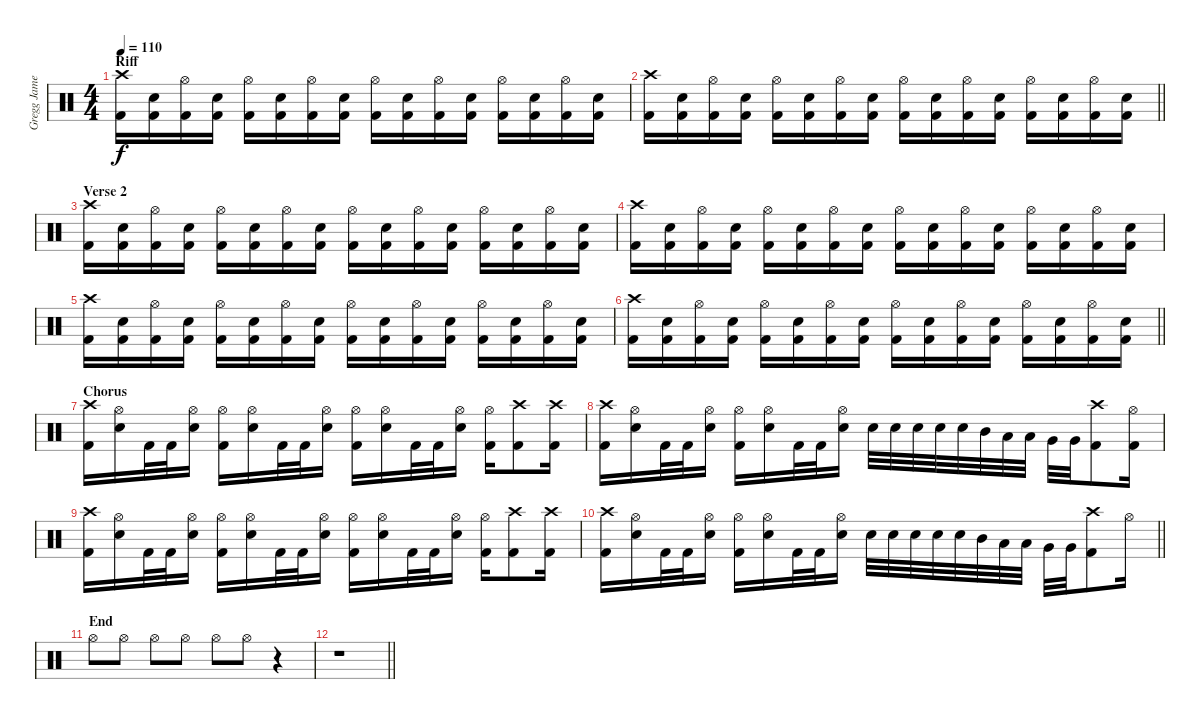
\track ("Gregg James" "Gregg Jame") {instrument percussion}
\staff {score}
\articulation defaults
\ts (4 4)
\section ("" "Riff")
\tempo 110
\clef neutral
\ks c
("Kick (hit) 2" "Crash high (hit)").16{dy f} ("Kick (hit) 2" "Snare (hit) 2").16 ("Kick (hit) 2" "Hi-Hat (open)").16 ("Kick (hit) 2" "Snare (hit) 2").16 ("Kick (hit) 2" "Hi-Hat (open)").16 ("Kick (hit) 2" "Snare (hit) 2").16 ("Kick (hit) 2" "Hi-Hat (open)").16 ("Kick (hit) 2" "Snare (hit) 2").16 ("Kick (hit) 2" "Hi-Hat (open)").16 ("Kick (hit) 2" "Snare (hit) 2").16 ("Kick (hit) 2" "Hi-Hat (open)").16 ("Kick (hit) 2" "Snare (hit) 2").16 ("Kick (hit) 2" "Hi-Hat (open)").16 ("Kick (hit) 2" "Snare (hit) 2").16 ("Kick (hit) 2" "Hi-Hat (open)").16 ("Kick (hit) 2" "Snare (hit) 2").16 |
\barLineRight lightlight
("Kick (hit) 2" "Crash high (hit)").16 ("Kick (hit) 2" "Snare (hit) 2").16 ("Kick (hit) 2" "Hi-Hat (open)").16 ("Kick (hit) 2" "Snare (hit) 2").16 ("Kick (hit) 2" "Hi-Hat (open)").16 ("Kick (hit) 2" "Snare (hit) 2").16 ("Kick (hit) 2" "Hi-Hat (open)").16 ("Kick (hit) 2" "Snare (hit) 2").16 ("Kick (hit) 2" "Hi-Hat (open)").16 ("Kick (hit) 2" "Snare (hit) 2").16 ("Kick (hit) 2" "Hi-Hat (open)").16 ("Kick (hit) 2" "Snare (hit) 2").16 ("Kick (hit) 2" "Hi-Hat (open)").16 ("Kick (hit) 2" "Snare (hit) 2").16 ("Kick (hit) 2" "Hi-Hat (open)").16 ("Kick (hit) 2" "Snare (hit) 2").16 |
\section ("" "Verse 2")
("Kick (hit) 2" "Crash high (hit)").16 ("Kick (hit) 2" "Snare (hit) 2").16 ("Kick (hit) 2" "Hi-Hat (open)").16 ("Kick (hit) 2" "Snare (hit) 2").16 ("Kick (hit) 2" "Hi-Hat (open)").16 ("Kick (hit) 2" "Snare (hit) 2").16 ("Kick (hit) 2" "Hi-Hat (open)").16 ("Kick (hit) 2" "Snare (hit) 2").16 ("Kick (hit) 2" "Hi-Hat (open)").16 ("Kick (hit) 2" "Snare (hit) 2").16 ("Kick (hit) 2" "Hi-Hat (open)").16 ("Kick (hit) 2" "Snare (hit) 2").16 ("Kick (hit) 2" "Hi-Hat (open)").16 ("Kick (hit) 2" "Snare (hit) 2").16 ("Kick (hit) 2" "Hi-Hat (open)").16 ("Kick (hit) 2" "Snare (hit) 2").16 |
("Kick (hit) 2" "Crash high (hit)").16 ("Kick (hit) 2" "Snare (hit) 2").16 ("Kick (hit) 2" "Hi-Hat (open)").16 ("Kick (hit) 2" "Snare (hit) 2").16 ("Kick (hit) 2" "Hi-Hat (open)").16 ("Kick (hit) 2" "Snare (hit) 2").16 ("Kick (hit) 2" "Hi-Hat (open)").16 ("Kick (hit) 2" "Snare (hit) 2").16 ("Kick (hit) 2" "Hi-Hat (open)").16 ("Kick (hit) 2" "Snare (hit) 2").16 ("Kick (hit) 2" "Hi-Hat (open)").16 ("Kick (hit) 2" "Snare (hit) 2").16 ("Kick (hit) 2" "Hi-Hat (open)").16 ("Kick (hit) 2" "Snare (hit) 2").16 ("Kick (hit) 2" "Hi-Hat (open)").16 ("Kick (hit) 2" "Snare (hit) 2").16 |
("Kick (hit) 2" "Crash high (hit)").16 ("Kick (hit) 2" "Snare (hit) 2").16 ("Kick (hit) 2" "Hi-Hat (open)").16 ("Kick (hit) 2" "Snare (hit) 2").16 ("Kick (hit) 2" "Hi-Hat (open)").16 ("Kick (hit) 2" "Snare (hit) 2").16 ("Kick (hit) 2" "Hi-Hat (open)").16 ("Kick (hit) 2" "Snare (hit) 2").16 ("Kick (hit) 2" "Hi-Hat (open)").16 ("Kick (hit) 2" "Snare (hit) 2").16 ("Kick (hit) 2" "Hi-Hat (open)").16 ("Kick (hit) 2" "Snare (hit) 2").16 ("Kick (hit) 2" "Hi-Hat (open)").16 ("Kick (hit) 2" "Snare (hit) 2").16 ("Kick (hit) 2" "Hi-Hat (open)").16 ("Kick (hit) 2" "Snare (hit) 2").16 |
\barLineRight lightlight
("Kick (hit) 2" "Crash high (hit)").16 ("Kick (hit) 2" "Snare (hit) 2").16 ("Kick (hit) 2" "Hi-Hat (open)").16 ("Kick (hit) 2" "Snare (hit) 2").16 ("Kick (hit) 2" "Hi-Hat (open)").16 ("Kick (hit) 2" "Snare (hit) 2").16 ("Kick (hit) 2" "Hi-Hat (open)").16 ("Kick (hit) 2" "Snare (hit) 2").16 ("Kick (hit) 2" "Hi-Hat (open)").16 ("Kick (hit) 2" "Snare (hit) 2").16 ("Kick (hit) 2" "Hi-Hat (open)").16 ("Kick (hit) 2" "Snare (hit) 2").16 ("Kick (hit) 2" "Hi-Hat (open)").16 ("Kick (hit) 2" "Snare (hit) 2").16 ("Kick (hit) 2" "Hi-Hat (open)").16 ("Kick (hit) 2" "Snare (hit) 2").16 |
\section ("" "Chorus")
("Kick (hit) 2" "Crash high (hit)").16 ("Snare (hit) 2" "Hi-Hat (open)").16 "Kick (hit) 2".32 "Kick (hit) 2".32 ("Snare (hit) 2" "Hi-Hat (open)").16 ("Kick (hit) 2" "Hi-Hat (open)").16 ("Snare (hit) 2" "Hi-Hat (open)").16 "Kick (hit) 2".32 "Kick (hit) 2".32 ("Snare (hit) 2" "Hi-Hat (open)").16 ("Kick (hit) 2" "Hi-Hat (open)").16 ("Snare (hit) 2" "Hi-Hat (open)").16 "Kick (hit) 2".32 "Kick (hit) 2".32 ("Snare (hit) 2" "Hi-Hat (open)").16 ("Kick (hit) 2" "Hi-Hat (open)").16 ("Kick (hit) 2" "Crash high (hit)").8 ("Kick (hit) 2" "Crash high (hit)").16 |
("Kick (hit) 2" "Crash high (hit)").16 ("Snare (hit) 2" "Hi-Hat (open)").16 "Kick (hit) 2".32 "Kick (hit) 2".32 ("Snare (hit) 2" "Hi-Hat (open)").16 ("Kick (hit) 2" "Hi-Hat (open)").16 ("Snare (hit) 2" "Hi-Hat (open)").16 "Kick (hit) 2".32 "Kick (hit) 2".32 ("Snare (hit) 2" "Hi-Hat (open)").16 "Snare (hit) 2".32 "Snare (hit) 2".32 "Snare (hit) 2".32 "Snare (hit) 2".32 "Snare (hit) 2".32 "Mid Tom (hit)".32 "Low Tom (hit)".32 "Low Tom (hit)".32 "Very Low Tom (hit)".32 "Very Low Tom (hit)".32 ("Kick (hit) 2" "Crash high (hit)").8 ("Kick (hit) 2" "Hi-Hat (open)").16 |
("Kick (hit) 2" "Crash high (hit)").16 ("Snare (hit) 2" "Hi-Hat (open)").16 "Kick (hit) 2".32 "Kick (hit) 2".32 ("Snare (hit) 2" "Hi-Hat (open)").16 ("Kick (hit) 2" "Hi-Hat (open)").16 ("Snare (hit) 2" "Hi-Hat (open)").16 "Kick (hit) 2".32 "Kick (hit) 2".32 ("Snare (hit) 2" "Hi-Hat (open)").16 ("Kick (hit) 2" "Hi-Hat (open)").16 ("Snare (hit) 2" "Hi-Hat (open)").16 "Kick (hit) 2".32 "Kick (hit) 2".32 ("Snare (hit) 2" "Hi-Hat (open)").16 ("Kick (hit) 2" "Hi-Hat (open)").16 ("Kick (hit) 2" "Crash high (hit)").8 ("Kick (hit) 2" "Crash high (hit)").16 |
\barLineRight lightlight
("Kick (hit) 2" "Crash high (hit)").16 ("Snare (hit) 2" "Hi-Hat (open)").16 "Kick (hit) 2".32 "Kick (hit) 2".32 ("Snare (hit) 2" "Hi-Hat (open)").16 ("Kick (hit) 2" "Hi-Hat (open)").16 ("Snare (hit) 2" "Hi-Hat (open)").16 "Kick (hit) 2".32 "Kick (hit) 2".32 ("Snare (hit) 2" "Hi-Hat (open)").16 "Snare (hit) 2".32 "Snare (hit) 2".32 "Snare (hit) 2".32 "Snare (hit) 2".32 "Snare (hit) 2".32 "Mid Tom (hit)".32 "Low Tom (hit)".32 "Low Tom (hit)".32 "Very Low Tom (hit)".32 "Very Low Tom (hit)".32 ("Kick (hit) 2" "Crash high (hit)").8 "Hi-Hat (open)".16 |
\section ("" "End")
"Hi-Hat (open)".8 "Hi-Hat (open)".8 "Hi-Hat (open)".8 "Hi-Hat (open)".8 "Hi-Hat (open)".8 "Hi-Hat (open)".8 r.4 |
\barLineRight lightlight
r.1
